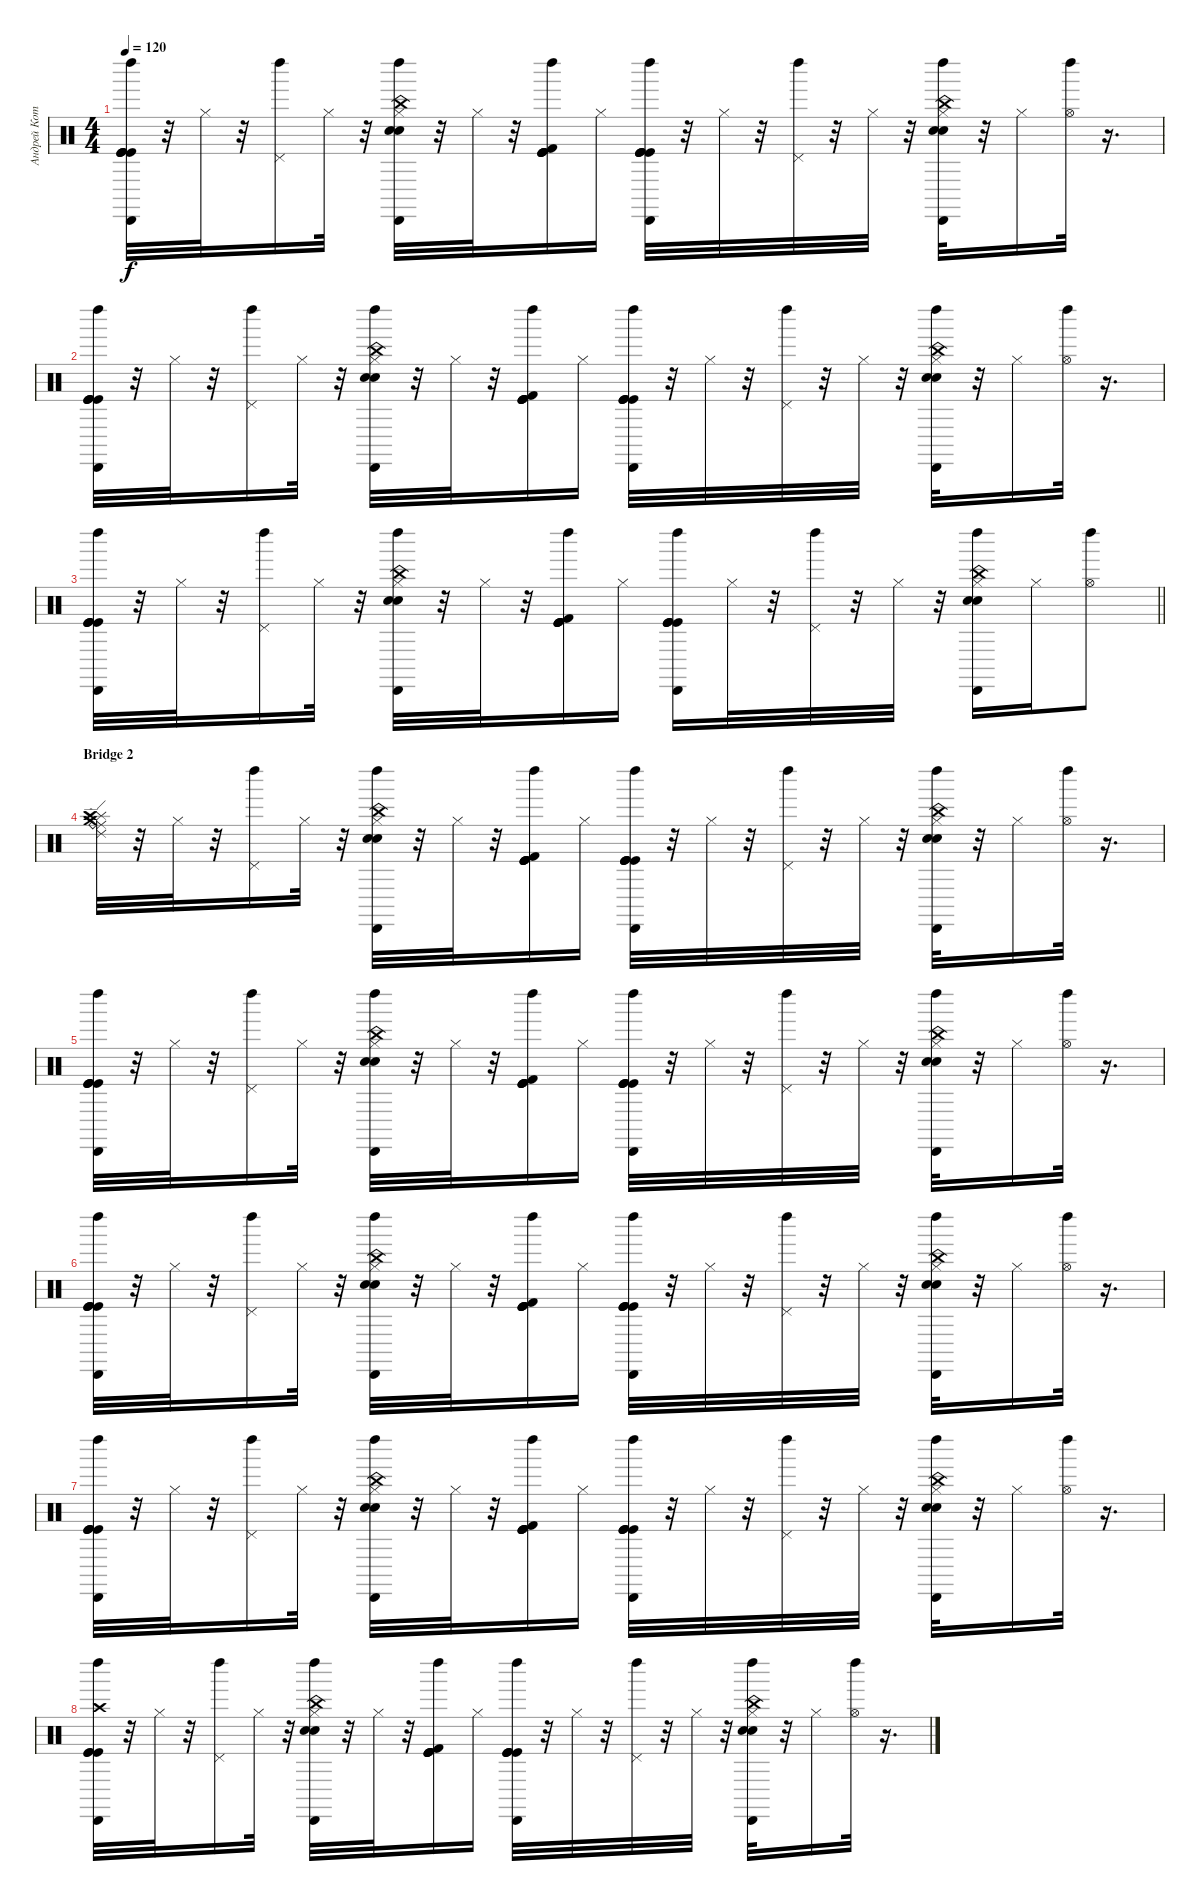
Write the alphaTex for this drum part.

\track ("Андрей Котов " "Андрей Кот") {instrument percussion}
\staff {score}
\articulation defaults
\ts (4 4)
\tempo 120
\clef neutral
\ks c
("Left Maraca (hit)" "Cabasa (hit)" "Kick (hit)" "Kick (hit)" "Kick (hit)" "Kick (hit)").32{dy f} r.32 "Hi-Hat (closed)".32 r.32 ("Left Maraca (hit)" "Pedal Hi-Hat (hit)").16 "Hi-Hat (closed)".32 r.32 ("Left Maraca (hit)" "Cabasa (hit)" "China (hit)" "Electric Snare (hit)" "Hand Clap (hit)" "Hi-Hat (closed)").32 r.32 "Hi-Hat (closed)".32 r.32 ("Left Maraca (hit)" "Kick (hit)" "Kick (hit)" "Kick (hit)" "Kick (hit)" "Kick (hit) 2").16 "Hi-Hat (closed)".16 ("Left Maraca (hit)" "Cabasa (hit)" "Kick (hit)" "Kick (hit)" "Kick (hit)" "Kick (hit)").32 r.32 "Hi-Hat (closed)".32 r.32 ("Left Maraca (hit)" "Pedal Hi-Hat (hit)").32 r.32 "Hi-Hat (closed)".32 r.32 ("Left Maraca (hit)" "Cabasa (hit)" "China (hit)" "Electric Snare (hit)" "Hand Clap (hit)" "Hi-Hat (closed)").32 r.32 "Hi-Hat (closed)".16 ("Left Maraca (hit)" "Hi-Hat (open)").32 r.16{d} |
("Left Maraca (hit)" "Cabasa (hit)" "Kick (hit)" "Kick (hit)" "Kick (hit)" "Kick (hit)").32 r.32 "Hi-Hat (closed)".32 r.32 ("Left Maraca (hit)" "Pedal Hi-Hat (hit)").16 "Hi-Hat (closed)".32 r.32 ("Left Maraca (hit)" "Cabasa (hit)" "China (hit)" "Electric Snare (hit)" "Hand Clap (hit)" "Hi-Hat (closed)").32 r.32 "Hi-Hat (closed)".32 r.32 ("Left Maraca (hit)" "Kick (hit)" "Kick (hit)" "Kick (hit)" "Kick (hit)" "Kick (hit) 2").16 "Hi-Hat (closed)".16 ("Left Maraca (hit)" "Cabasa (hit)" "Kick (hit)" "Kick (hit)" "Kick (hit)" "Kick (hit)").32 r.32 "Hi-Hat (closed)".32 r.32 ("Left Maraca (hit)" "Pedal Hi-Hat (hit)").32 r.32 "Hi-Hat (closed)".32 r.32 ("Left Maraca (hit)" "Cabasa (hit)" "China (hit)" "Electric Snare (hit)" "Hand Clap (hit)" "Hi-Hat (closed)").32 r.32 "Hi-Hat (closed)".16 ("Left Maraca (hit)" "Hi-Hat (open)").32 r.16{d} |
\barLineRight lightlight
("Left Maraca (hit)" "Cabasa (hit)" "Kick (hit)" "Kick (hit)" "Kick (hit)" "Kick (hit)").32 r.32 "Hi-Hat (closed)".32 r.32 ("Left Maraca (hit)" "Pedal Hi-Hat (hit)").16 "Hi-Hat (closed)".32 r.32 ("Left Maraca (hit)" "Cabasa (hit)" "China (hit)" "Electric Snare (hit)" "Hand Clap (hit)" "Hi-Hat (closed)").32 r.32 "Hi-Hat (closed)".32 r.32 ("Left Maraca (hit)" "Kick (hit)" "Kick (hit)" "Kick (hit)" "Kick (hit)" "Kick (hit) 2").16 "Hi-Hat (closed)".16 ("Left Maraca (hit)" "Cabasa (hit)" "Kick (hit)" "Kick (hit)" "Kick (hit)" "Kick (hit)").16 "Hi-Hat (closed)".32 r.32 ("Left Maraca (hit)" "Pedal Hi-Hat (hit)").32 r.32 "Hi-Hat (closed)".32 r.32 ("Left Maraca (hit)" "Cabasa (hit)" "China (hit)" "Electric Snare (hit)" "Hand Clap (hit)" "Hi-Hat (closed)").16 "Hi-Hat (closed)".16 ("Left Maraca (hit)" "Hi-Hat (open)").8 |
\section ("" "Bridge 2")
("Ride (middle)" "Ride (bell)" "Ride (edge) 2" "Splash (hit)" "Crash medium (hit)" "Crash high (hit)").32 r.32 "Hi-Hat (closed)".32 r.32 ("Left Maraca (hit)" "Pedal Hi-Hat (hit)").16 "Hi-Hat (closed)".32 r.32 ("Cabasa (hit)" "Left Maraca (hit)" "China (hit)" "Electric Snare (hit)" "Hand Clap (hit)" "Hi-Hat (closed)").32 r.32 "Hi-Hat (closed)".32 r.32 ("Left Maraca (hit)" "Kick (hit)" "Kick (hit)" "Kick (hit)" "Kick (hit)" "Kick (hit) 2").16 "Hi-Hat (closed)".16 ("Cabasa (hit)" "Left Maraca (hit)" "Kick (hit)" "Kick (hit)" "Kick (hit)" "Kick (hit)").32 r.32 "Hi-Hat (closed)".32 r.32 ("Left Maraca (hit)" "Pedal Hi-Hat (hit)").32 r.32 "Hi-Hat (closed)".32 r.32 ("Cabasa (hit)" "Left Maraca (hit)" "China (hit)" "Electric Snare (hit)" "Hand Clap (hit)" "Hi-Hat (closed)").32 r.32 "Hi-Hat (closed)".16 ("Left Maraca (hit)" "Hi-Hat (open)").32 r.16{d} |
("Cabasa (hit)" "Left Maraca (hit)" "Kick (hit)" "Kick (hit)" "Kick (hit)" "Kick (hit)").32 r.32 "Hi-Hat (closed)".32 r.32 ("Left Maraca (hit)" "Pedal Hi-Hat (hit)").16 "Hi-Hat (closed)".32 r.32 ("Cabasa (hit)" "Left Maraca (hit)" "China (hit)" "Electric Snare (hit)" "Hand Clap (hit)" "Hi-Hat (closed)").32 r.32 "Hi-Hat (closed)".32 r.32 ("Left Maraca (hit)" "Kick (hit)" "Kick (hit)" "Kick (hit)" "Kick (hit)" "Kick (hit) 2").16 "Hi-Hat (closed)".16 ("Cabasa (hit)" "Left Maraca (hit)" "Kick (hit)" "Kick (hit)" "Kick (hit)" "Kick (hit)").32 r.32 "Hi-Hat (closed)".32 r.32 ("Left Maraca (hit)" "Pedal Hi-Hat (hit)").32 r.32 "Hi-Hat (closed)".32 r.32 ("Cabasa (hit)" "Left Maraca (hit)" "China (hit)" "Electric Snare (hit)" "Hand Clap (hit)" "Hi-Hat (closed)").32 r.32 "Hi-Hat (closed)".16 ("Left Maraca (hit)" "Hi-Hat (open)").32 r.16{d} |
("Cabasa (hit)" "Left Maraca (hit)" "Kick (hit)" "Kick (hit)" "Kick (hit)" "Kick (hit)").32 r.32 "Hi-Hat (closed)".32 r.32 ("Left Maraca (hit)" "Pedal Hi-Hat (hit)").16 "Hi-Hat (closed)".32 r.32 ("Cabasa (hit)" "Left Maraca (hit)" "China (hit)" "Electric Snare (hit)" "Hand Clap (hit)" "Hi-Hat (closed)").32 r.32 "Hi-Hat (closed)".32 r.32 ("Left Maraca (hit)" "Kick (hit)" "Kick (hit)" "Kick (hit)" "Kick (hit)" "Kick (hit) 2").16 "Hi-Hat (closed)".16 ("Cabasa (hit)" "Left Maraca (hit)" "Kick (hit)" "Kick (hit)" "Kick (hit)" "Kick (hit)").32 r.32 "Hi-Hat (closed)".32 r.32 ("Left Maraca (hit)" "Pedal Hi-Hat (hit)").32 r.32 "Hi-Hat (closed)".32 r.32 ("Cabasa (hit)" "Left Maraca (hit)" "China (hit)" "Electric Snare (hit)" "Hand Clap (hit)" "Hi-Hat (closed)").32 r.32 "Hi-Hat (closed)".16 ("Left Maraca (hit)" "Hi-Hat (open)").32 r.16{d} |
("Cabasa (hit)" "Left Maraca (hit)" "Kick (hit)" "Kick (hit)" "Kick (hit)" "Kick (hit)").32 r.32 "Hi-Hat (closed)".32 r.32 ("Left Maraca (hit)" "Pedal Hi-Hat (hit)").16 "Hi-Hat (closed)".32 r.32 ("Cabasa (hit)" "Left Maraca (hit)" "China (hit)" "Electric Snare (hit)" "Hand Clap (hit)" "Hi-Hat (closed)").32 r.32 "Hi-Hat (closed)".32 r.32 ("Left Maraca (hit)" "Kick (hit)" "Kick (hit)" "Kick (hit)" "Kick (hit)" "Kick (hit) 2").16 "Hi-Hat (closed)".16 ("Cabasa (hit)" "Left Maraca (hit)" "Kick (hit)" "Kick (hit)" "Kick (hit)" "Kick (hit)").32 r.32 "Hi-Hat (closed)".32 r.32 ("Left Maraca (hit)" "Pedal Hi-Hat (hit)").32 r.32 "Hi-Hat (closed)".32 r.32 ("Cabasa (hit)" "Left Maraca (hit)" "China (hit)" "Electric Snare (hit)" "Hand Clap (hit)" "Hi-Hat (closed)").32 r.32 "Hi-Hat (closed)".16 ("Left Maraca (hit)" "Hi-Hat (open)").32 r.16{d} |
("Crash high (hit)" "Cabasa (hit)" "Left Maraca (hit)" "Kick (hit)" "Kick (hit)" "Kick (hit)").32 r.32 "Hi-Hat (closed)".32 r.32 ("Left Maraca (hit)" "Pedal Hi-Hat (hit)").16 "Hi-Hat (closed)".32 r.32 ("Cabasa (hit)" "Left Maraca (hit)" "China (hit)" "Electric Snare (hit)" "Hand Clap (hit)" "Hi-Hat (closed)").32 r.32 "Hi-Hat (closed)".32 r.32 ("Left Maraca (hit)" "Kick (hit)" "Kick (hit)" "Kick (hit)" "Kick (hit)" "Kick (hit) 2").16 "Hi-Hat (closed)".16 ("Cabasa (hit)" "Left Maraca (hit)" "Kick (hit)" "Kick (hit)" "Kick (hit)" "Kick (hit)").32 r.32 "Hi-Hat (closed)".32 r.32 ("Left Maraca (hit)" "Pedal Hi-Hat (hit)").32 r.32 "Hi-Hat (closed)".32 r.32 ("Cabasa (hit)" "Left Maraca (hit)" "China (hit)" "Electric Snare (hit)" "Hand Clap (hit)" "Hi-Hat (closed)").32 r.32 "Hi-Hat (closed)".16 ("Left Maraca (hit)" "Hi-Hat (open)").32 r.16{d}
